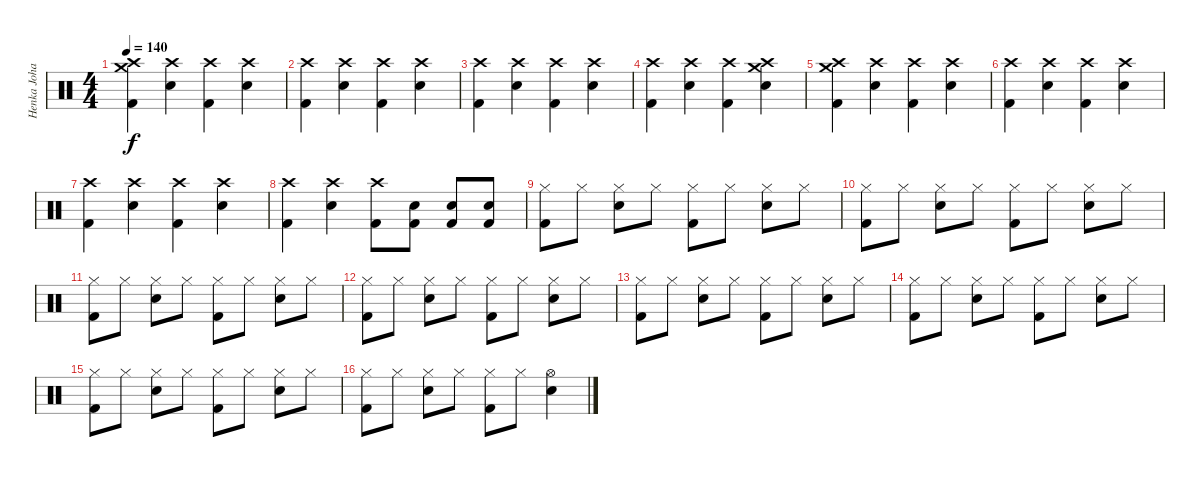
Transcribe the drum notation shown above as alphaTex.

\track ("Henka Johannson " "Henka Joha") {instrument percussion}
\staff {score}
\articulation defaults
\ts (4 4)
\tempo 140
\clef neutral
\ks c
("Crash medium (hit)" "Crash high (hit)" "Kick (hit) 2").4{dy f} ("Crash high (hit)" "Electric Snare (hit)").4 ("Crash high (hit)" "Kick (hit) 2").4 ("Crash high (hit)" "Electric Snare (hit)").4 |
("Crash high (hit)" "Kick (hit) 2").4 ("Crash high (hit)" "Electric Snare (hit)").4 ("Crash high (hit)" "Kick (hit) 2").4 ("Crash high (hit)" "Electric Snare (hit)").4 |
("Crash high (hit)" "Kick (hit) 2").4 ("Crash high (hit)" "Electric Snare (hit)").4 ("Crash high (hit)" "Kick (hit) 2").4 ("Crash high (hit)" "Electric Snare (hit)").4 |
("Crash high (hit)" "Kick (hit) 2").4 ("Crash high (hit)" "Electric Snare (hit)").4 ("Crash high (hit)" "Kick (hit) 2").4 ("Crash medium (hit)" "Crash high (hit)" "Electric Snare (hit)").4 |
("Crash medium (hit)" "Crash high (hit)" "Kick (hit) 2").4 ("Crash high (hit)" "Electric Snare (hit)").4 ("Crash high (hit)" "Kick (hit) 2").4 ("Crash high (hit)" "Electric Snare (hit)").4 |
("Crash high (hit)" "Kick (hit) 2").4 ("Crash high (hit)" "Electric Snare (hit)").4 ("Crash high (hit)" "Kick (hit) 2").4 ("Crash high (hit)" "Electric Snare (hit)").4 |
("Crash high (hit)" "Kick (hit) 2").4 ("Crash high (hit)" "Electric Snare (hit)").4 ("Crash high (hit)" "Kick (hit) 2").4 ("Crash high (hit)" "Electric Snare (hit)").4 |
("Crash high (hit)" "Kick (hit) 2").4 ("Crash high (hit)" "Electric Snare (hit)").4 ("Crash high (hit)" "Kick (hit) 2").8 ("Electric Snare (hit)" "Kick (hit) 2").8 ("Electric Snare (hit)" "Kick (hit) 2").8 ("Electric Snare (hit)" "Kick (hit) 2").8 |
("Hi-Hat (closed)" "Kick (hit) 2").8 "Hi-Hat (closed)".8 ("Hi-Hat (closed)" "Electric Snare (hit)").8 "Hi-Hat (closed)".8 ("Hi-Hat (closed)" "Kick (hit) 2").8 "Hi-Hat (closed)".8 ("Hi-Hat (closed)" "Electric Snare (hit)").8 "Hi-Hat (closed)".8 |
("Hi-Hat (closed)" "Kick (hit) 2").8 "Hi-Hat (closed)".8 ("Hi-Hat (closed)" "Electric Snare (hit)").8 "Hi-Hat (closed)".8 ("Hi-Hat (closed)" "Kick (hit) 2").8 "Hi-Hat (closed)".8 ("Hi-Hat (closed)" "Electric Snare (hit)").8 "Hi-Hat (closed)".8 |
("Hi-Hat (closed)" "Kick (hit) 2").8 "Hi-Hat (closed)".8 ("Hi-Hat (closed)" "Electric Snare (hit)").8 "Hi-Hat (closed)".8 ("Hi-Hat (closed)" "Kick (hit) 2").8 "Hi-Hat (closed)".8 ("Hi-Hat (closed)" "Electric Snare (hit)").8 "Hi-Hat (closed)".8 |
("Hi-Hat (closed)" "Kick (hit) 2").8 "Hi-Hat (closed)".8 ("Hi-Hat (closed)" "Electric Snare (hit)").8 "Hi-Hat (closed)".8 ("Hi-Hat (closed)" "Kick (hit) 2").8 "Hi-Hat (closed)".8 ("Hi-Hat (closed)" "Electric Snare (hit)").8 "Hi-Hat (closed)".8 |
("Hi-Hat (closed)" "Kick (hit) 2").8 "Hi-Hat (closed)".8 ("Hi-Hat (closed)" "Electric Snare (hit)").8 "Hi-Hat (closed)".8 ("Hi-Hat (closed)" "Kick (hit) 2").8 "Hi-Hat (closed)".8 ("Hi-Hat (closed)" "Electric Snare (hit)").8 "Hi-Hat (closed)".8 |
("Hi-Hat (closed)" "Kick (hit) 2").8 "Hi-Hat (closed)".8 ("Hi-Hat (closed)" "Electric Snare (hit)").8 "Hi-Hat (closed)".8 ("Hi-Hat (closed)" "Kick (hit) 2").8 "Hi-Hat (closed)".8 ("Hi-Hat (closed)" "Electric Snare (hit)").8 "Hi-Hat (closed)".8 |
("Hi-Hat (closed)" "Kick (hit) 2").8 "Hi-Hat (closed)".8 ("Hi-Hat (closed)" "Electric Snare (hit)").8 "Hi-Hat (closed)".8 ("Hi-Hat (closed)" "Kick (hit) 2").8 "Hi-Hat (closed)".8 ("Hi-Hat (closed)" "Electric Snare (hit)").8 "Hi-Hat (closed)".8 |
("Hi-Hat (closed)" "Kick (hit) 2").8 "Hi-Hat (closed)".8 ("Hi-Hat (closed)" "Electric Snare (hit)").8 "Hi-Hat (closed)".8 ("Hi-Hat (closed)" "Kick (hit) 2").8 "Hi-Hat (closed)".8 ("Hi-Hat (open)" "Electric Snare (hit)").4
